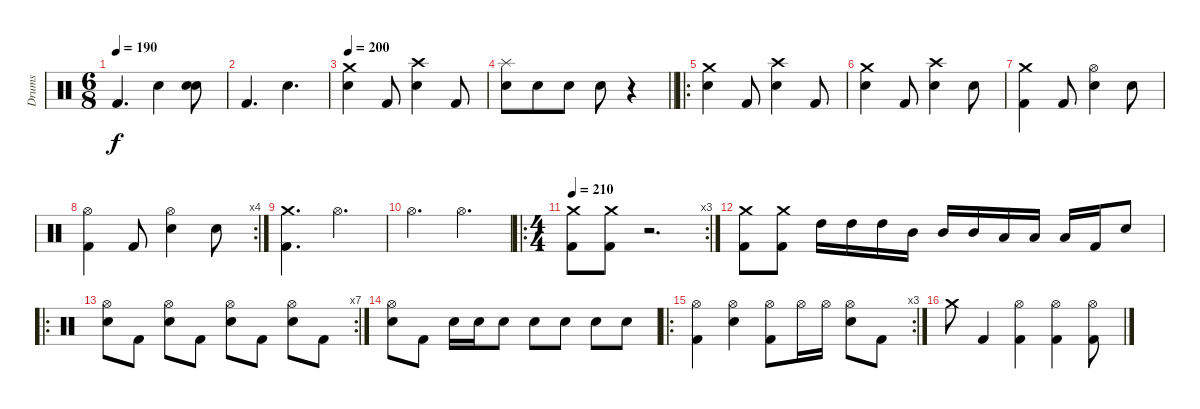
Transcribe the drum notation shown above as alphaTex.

\track ("Drums" "Drums") {instrument percussion}
\staff {score}
\articulation defaults
\ts (6 8)
\tempo 190
\clef neutral
\ks c "Kick (hit) 2".4{d dy f} "Electric Snare (hit)".4
("Electric Snare (hit)" "Electric Snare (hit)").8{bd 480} |
"Kick (hit) 2".4{d} "Electric Snare (hit)".4{d} |
\tempo 200
("Crash medium (hit)" "Electric Snare (hit)").4 "Kick (hit) 2".8 ("Crash high (hit)" "Electric Snare (hit)").4 "Kick (hit) 2".8 |
\barLineRight lightlight
("Splash (hit)" "Electric Snare (hit)").8 "Electric Snare (hit)".8 "Electric Snare (hit)".8 "Electric Snare (hit)".8 r.4 |
\ro
("Crash medium (hit)" "Electric Snare (hit)").4 "Kick (hit) 2".8 ("Crash high (hit)" "Electric Snare (hit)").4 "Kick (hit) 2".8 |
("Crash medium (hit)" "Electric Snare (hit)").4 "Kick (hit) 2".8 ("Crash high (hit)" "Electric Snare (hit)").4 "Electric Snare (hit)".8 |
("Crash medium (hit)" "Kick (hit) 2").4 "Kick (hit) 2".8 ("Hi-Hat (open)" "Electric Snare (hit)").4 "Electric Snare (hit)".8 |
\rc 4
("Hi-Hat (open)" "Kick (hit) 2").4 "Kick (hit) 2".8 ("Hi-Hat (open)" "Electric Snare (hit)").4 "Electric Snare (hit)".8 |
("Crash medium (hit)" "Kick (hit) 2").4{d} "Hi-Hat (open)".4{d} |
"Hi-Hat (open)".4{d} "Hi-Hat (open)".4{d} |
\ro
\rc 3
\ts (4 4)
\tempo 210
("Crash medium (hit)" "Kick (hit) 2").8 ("Crash medium (hit)" "Kick (hit) 2").8 r.2{d} |
("Crash medium (hit)" "Kick (hit) 2").8 ("Crash medium (hit)" "Kick (hit) 2").8 "High Tom (hit)".16 "High Tom (hit)".16 "High Tom (hit)".16 "Mid Tom (hit)".16 "Mid Tom (hit)".16 "Mid Tom (hit)".16 "Low Tom (hit)".16 "Low Tom (hit)".16 "Low Tom (hit)".16 "Kick (hit) 2".16 "Electric Snare (hit)".8 |
\ro
\rc 7
("Hi-Hat (open)" "Electric Snare (hit)").8 "Kick (hit) 2".8 ("Hi-Hat (open)" "Electric Snare (hit)").8 "Kick (hit) 2".8 ("Hi-Hat (open)" "Electric Snare (hit)").8 "Kick (hit) 2".8 ("Hi-Hat (open)" "Electric Snare (hit)").8 "Kick (hit) 2".8 |
("Hi-Hat (open)" "Electric Snare (hit)").8 "Kick (hit) 2".8 "Electric Snare (hit)".16 "Electric Snare (hit)".16 "Electric Snare (hit)".8 "Electric Snare (hit)".8 "Electric Snare (hit)".8 "Electric Snare (hit)".8 "Electric Snare (hit)".8 |
\ro
\rc 3
("Hi-Hat (open)" "Kick (hit) 2").4 ("Hi-Hat (open)" "Electric Snare (hit)").4 ("Hi-Hat (open)" "Kick (hit) 2").8 "Hi-Hat (open)".16 "Hi-Hat (open)".16 ("Hi-Hat (open)" "Electric Snare (hit)").8 "Kick (hit) 2".8 |
"Crash medium (hit)".8 "Kick (hit) 2".4 ("Hi-Hat (open)" "Kick (hit) 2").4 ("Hi-Hat (open)" "Kick (hit) 2").4 ("Hi-Hat (open)" "Kick (hit) 2").8
